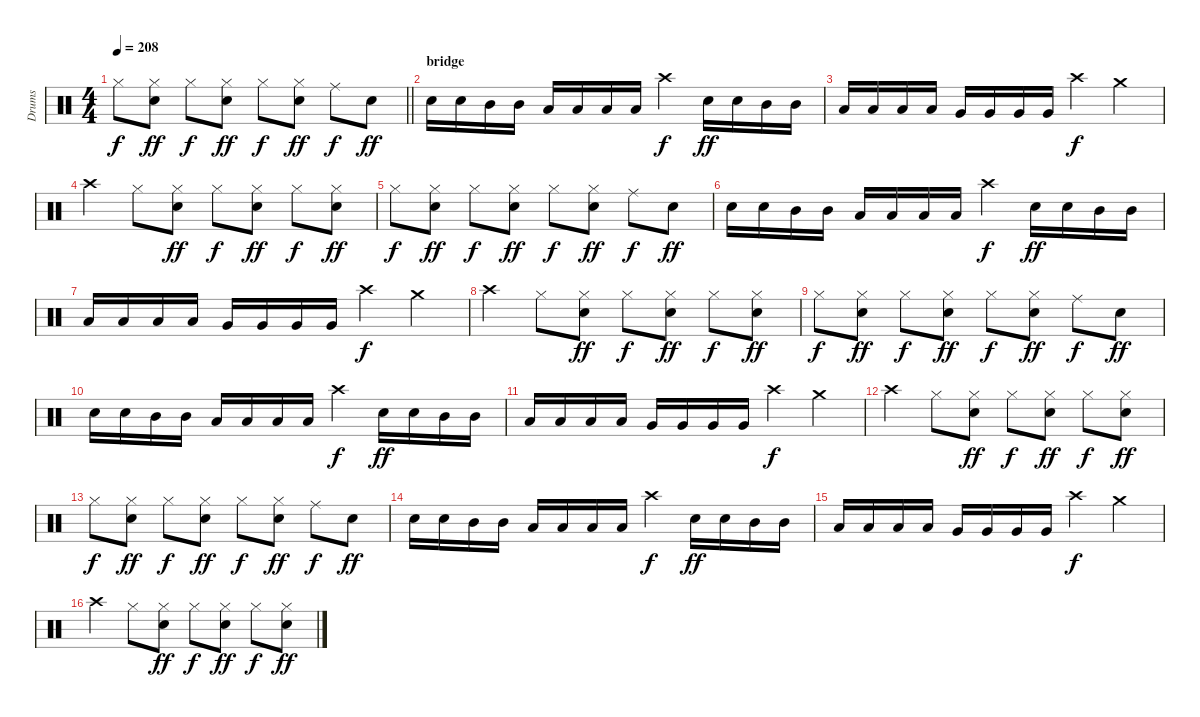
\track ("Drums" "Drums") {instrument percussion}
\staff {score}
\articulation defaults
\ts (4 4)
\tempo 208
\clef neutral
\barLineRight lightlight
\ks c "Hi-Hat (closed)".8{dy f}
("Hi-Hat (closed)" "Snare (hit) 2").8{dy ff} "Hi-Hat (closed)".8{dy f} ("Hi-Hat (closed)" "Snare (hit) 2").8{dy ff} "Hi-Hat (closed)".8{dy f} ("Hi-Hat (closed)" "Snare (hit) 2").8{dy ff} "Ride (middle)".8{dy f} "Snare (hit) 2".8{dy ff} |
\section ("" "bridge")
"Snare (hit) 2".16 "Snare (hit) 2".16 "Mid Tom (hit)".16 "Mid Tom (hit)".16 "Low Tom (hit)".16 "Low Tom (hit)".16 "Low Tom (hit)".16 "Low Tom (hit)".16 "Crash high (hit)".4{dy f} "Snare (hit) 2".16{dy ff} "Snare (hit) 2".16 "Mid Tom (hit)".16 "Mid Tom (hit)".16 |
"Low Tom (hit)".16 "Low Tom (hit)".16 "Low Tom (hit)".16 "Low Tom (hit)".16 "Very Low Tom (hit)".16 "Very Low Tom (hit)".16 "Very Low Tom (hit)".16 "Very Low Tom (hit)".16 "Crash high (hit)".4{dy f} "Crash medium (hit)".4 |
"Crash high (hit)".4 "Hi-Hat (closed)".8 ("Hi-Hat (closed)" "Snare (hit) 2").8{dy ff} "Hi-Hat (closed)".8{dy f} ("Hi-Hat (closed)" "Snare (hit) 2").8{dy ff} "Hi-Hat (closed)".8{dy f} ("Hi-Hat (closed)" "Snare (hit) 2").8{dy ff} |
"Hi-Hat (closed)".8{dy f} ("Hi-Hat (closed)" "Snare (hit) 2").8{dy ff} "Hi-Hat (closed)".8{dy f} ("Hi-Hat (closed)" "Snare (hit) 2").8{dy ff} "Hi-Hat (closed)".8{dy f} ("Hi-Hat (closed)" "Snare (hit) 2").8{dy ff} "Ride (middle)".8{dy f} "Snare (hit) 2".8{dy ff} |
"Snare (hit) 2".16 "Snare (hit) 2".16 "Mid Tom (hit)".16 "Mid Tom (hit)".16 "Low Tom (hit)".16 "Low Tom (hit)".16 "Low Tom (hit)".16 "Low Tom (hit)".16 "Crash high (hit)".4{dy f} "Snare (hit) 2".16{dy ff} "Snare (hit) 2".16 "Mid Tom (hit)".16 "Mid Tom (hit)".16 |
"Low Tom (hit)".16 "Low Tom (hit)".16 "Low Tom (hit)".16 "Low Tom (hit)".16 "Very Low Tom (hit)".16 "Very Low Tom (hit)".16 "Very Low Tom (hit)".16 "Very Low Tom (hit)".16 "Crash high (hit)".4{dy f} "Crash medium (hit)".4 |
"Crash high (hit)".4 "Hi-Hat (closed)".8 ("Hi-Hat (closed)" "Snare (hit) 2").8{dy ff} "Hi-Hat (closed)".8{dy f} ("Hi-Hat (closed)" "Snare (hit) 2").8{dy ff} "Hi-Hat (closed)".8{dy f} ("Hi-Hat (closed)" "Snare (hit) 2").8{dy ff} |
"Hi-Hat (closed)".8{dy f} ("Hi-Hat (closed)" "Snare (hit) 2").8{dy ff} "Hi-Hat (closed)".8{dy f} ("Hi-Hat (closed)" "Snare (hit) 2").8{dy ff} "Hi-Hat (closed)".8{dy f} ("Hi-Hat (closed)" "Snare (hit) 2").8{dy ff} "Ride (middle)".8{dy f} "Snare (hit) 2".8{dy ff} |
"Snare (hit) 2".16 "Snare (hit) 2".16 "Mid Tom (hit)".16 "Mid Tom (hit)".16 "Low Tom (hit)".16 "Low Tom (hit)".16 "Low Tom (hit)".16 "Low Tom (hit)".16 "Crash high (hit)".4{dy f} "Snare (hit) 2".16{dy ff} "Snare (hit) 2".16 "Mid Tom (hit)".16 "Mid Tom (hit)".16 |
"Low Tom (hit)".16 "Low Tom (hit)".16 "Low Tom (hit)".16 "Low Tom (hit)".16 "Very Low Tom (hit)".16 "Very Low Tom (hit)".16 "Very Low Tom (hit)".16 "Very Low Tom (hit)".16 "Crash high (hit)".4{dy f} "Crash medium (hit)".4 |
"Crash high (hit)".4 "Hi-Hat (closed)".8 ("Hi-Hat (closed)" "Snare (hit) 2").8{dy ff} "Hi-Hat (closed)".8{dy f} ("Hi-Hat (closed)" "Snare (hit) 2").8{dy ff} "Hi-Hat (closed)".8{dy f} ("Hi-Hat (closed)" "Snare (hit) 2").8{dy ff} |
"Hi-Hat (closed)".8{dy f} ("Hi-Hat (closed)" "Snare (hit) 2").8{dy ff} "Hi-Hat (closed)".8{dy f} ("Hi-Hat (closed)" "Snare (hit) 2").8{dy ff} "Hi-Hat (closed)".8{dy f} ("Hi-Hat (closed)" "Snare (hit) 2").8{dy ff} "Ride (middle)".8{dy f} "Snare (hit) 2".8{dy ff} |
"Snare (hit) 2".16 "Snare (hit) 2".16 "Mid Tom (hit)".16 "Mid Tom (hit)".16 "Low Tom (hit)".16 "Low Tom (hit)".16 "Low Tom (hit)".16 "Low Tom (hit)".16 "Crash high (hit)".4{dy f} "Snare (hit) 2".16{dy ff} "Snare (hit) 2".16 "Mid Tom (hit)".16 "Mid Tom (hit)".16 |
"Low Tom (hit)".16 "Low Tom (hit)".16 "Low Tom (hit)".16 "Low Tom (hit)".16 "Very Low Tom (hit)".16 "Very Low Tom (hit)".16 "Very Low Tom (hit)".16 "Very Low Tom (hit)".16 "Crash high (hit)".4{dy f} "Crash medium (hit)".4 |
"Crash high (hit)".4 "Hi-Hat (closed)".8 ("Hi-Hat (closed)" "Snare (hit) 2").8{dy ff} "Hi-Hat (closed)".8{dy f} ("Hi-Hat (closed)" "Snare (hit) 2").8{dy ff} "Hi-Hat (closed)".8{dy f} ("Hi-Hat (closed)" "Snare (hit) 2").8{dy ff}
